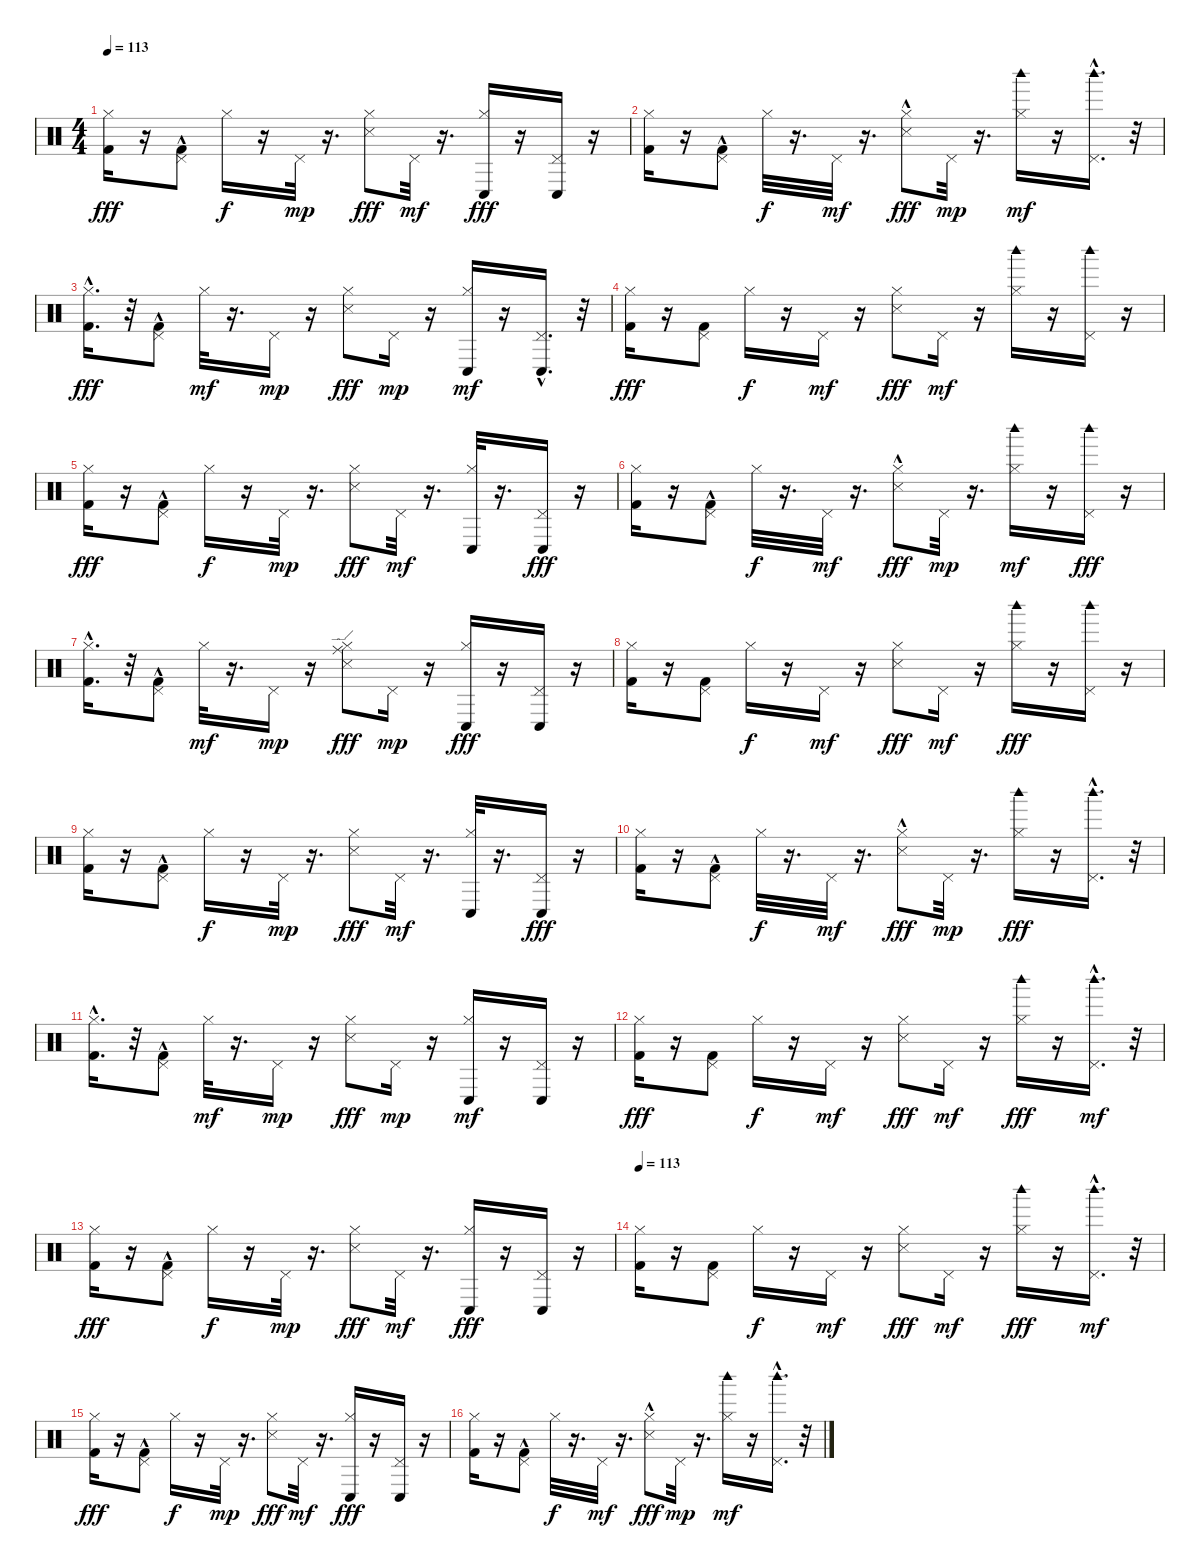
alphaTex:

\track "" {instrument percussion}
\staff {score}
\articulation defaults
\ts (4 4)
\tempo 113
\clef neutral
\ks c
("Hi-Hat (closed)" "Kick (hit) 2").16{dy fff} r.16 ("Pedal Hi-Hat (hit)" "Kick (hit) 2"{hac}).8 "Hi-Hat (closed)".16{dy f} r.16 "Pedal Hi-Hat (hit)".32{dy mp} r.16{d} ("Hi-Hat (closed)" "Snare (side stick) 3").8{dy fff} "Pedal Hi-Hat (hit)".32{dy mf} r.16{d} ("Hi-Hat (closed)" "Conga low (hit)").16{dy fff} r.16 ("Pedal Hi-Hat (hit)" "Conga low (hit)").16 r.16 |
("Hi-Hat (closed)" "Kick (hit) 2").16 r.16 ("Pedal Hi-Hat (hit)" "Kick (hit) 2"{hac}).8 "Hi-Hat (closed)".32{dy f} r.16{d} "Pedal Hi-Hat (hit)".32{dy mf} r.16{d} ("Hi-Hat (closed)" "Snare (side stick) 3"{hac}).8{dy fff} "Pedal Hi-Hat (hit)".32{dy mp} r.16{d} ("Woodblock high (hit)" "Hi-Hat (closed)").16{dy mf} r.16 ("Woodblock high (hit)"{hac} "Pedal Hi-Hat (hit)").16{d} r.32 |
("Hi-Hat (closed)" "Kick (hit) 2"{hac}).16{d dy fff} r.32 ("Pedal Hi-Hat (hit)" "Kick (hit) 2"{hac}).8 "Hi-Hat (closed)".32{dy mf} r.16{d} "Pedal Hi-Hat (hit)".16{dy mp} r.16 ("Hi-Hat (closed)" "Snare (side stick) 3").8{dy fff} "Pedal Hi-Hat (hit)".16{dy mp} r.16 ("Conga low (hit)" "Hi-Hat (closed)").16{dy mf} r.16 ("Conga low (hit)"{hac} "Pedal Hi-Hat (hit)").16{d} r.32 |
("Hi-Hat (closed)" "Kick (hit) 2").16{dy fff} r.16 ("Pedal Hi-Hat (hit)" "Kick (hit) 2").8 "Hi-Hat (closed)".16{dy f} r.16 "Pedal Hi-Hat (hit)".16{dy mf} r.16 ("Hi-Hat (closed)" "Snare (side stick) 3").8{dy fff} "Pedal Hi-Hat (hit)".16{dy mf} r.16 ("Woodblock high (hit)" "Hi-Hat (closed)").16 r.16 ("Woodblock high (hit)" "Pedal Hi-Hat (hit)").16 r.16 |
("Hi-Hat (closed)" "Kick (hit) 2").16{dy fff} r.16 ("Pedal Hi-Hat (hit)" "Kick (hit) 2"{hac}).8 "Hi-Hat (closed)".16{dy f} r.16 "Pedal Hi-Hat (hit)".32{dy mp} r.16{d} ("Hi-Hat (closed)" "Snare (side stick) 3").8{dy fff} "Pedal Hi-Hat (hit)".32{dy mf} r.16{d} ("Conga low (hit)" "Hi-Hat (closed)").32 r.16{d} ("Pedal Hi-Hat (hit)" "Conga low (hit)").16{dy fff} r.16 |
("Hi-Hat (closed)" "Kick (hit) 2").16 r.16 ("Pedal Hi-Hat (hit)" "Kick (hit) 2"{hac}).8 "Hi-Hat (closed)".32{dy f} r.16{d} "Pedal Hi-Hat (hit)".32{dy mf} r.16{d} ("Hi-Hat (closed)" "Snare (side stick) 3"{hac}).8{dy fff} "Pedal Hi-Hat (hit)".32{dy mp} r.16{d} ("Woodblock high (hit)" "Hi-Hat (closed)").16{dy mf} r.16 ("Pedal Hi-Hat (hit)" "Woodblock high (hit)").16{dy fff} r.16 |
("Hi-Hat (closed)" "Kick (hit) 2"{hac}).16{d} r.32 ("Pedal Hi-Hat (hit)" "Kick (hit) 2"{hac}).8 "Hi-Hat (closed)".32{dy mf} r.16{d} "Pedal Hi-Hat (hit)".16{dy mp} r.16 ("Ride (edge)" "Hi-Hat (closed)" "Snare (side stick) 3").8{dy fff} "Pedal Hi-Hat (hit)".16{dy mp} r.16 ("Hi-Hat (closed)" "Conga low (hit)").16{dy fff} r.16 ("Pedal Hi-Hat (hit)" "Conga low (hit)").16 r.16 |
("Hi-Hat (closed)" "Kick (hit) 2").16 r.16 ("Pedal Hi-Hat (hit)" "Kick (hit) 2").8 "Hi-Hat (closed)".16{dy f} r.16 "Pedal Hi-Hat (hit)".16{dy mf} r.16 ("Hi-Hat (closed)" "Snare (side stick) 3").8{dy fff} "Pedal Hi-Hat (hit)".16{dy mf} r.16 ("Hi-Hat (closed)" "Woodblock high (hit)").16{dy fff} r.16 ("Pedal Hi-Hat (hit)" "Woodblock high (hit)").16 r.16 |
("Hi-Hat (closed)" "Kick (hit) 2").16 r.16 ("Pedal Hi-Hat (hit)" "Kick (hit) 2"{hac}).8 "Hi-Hat (closed)".16{dy f} r.16 "Pedal Hi-Hat (hit)".32{dy mp} r.16{d} ("Hi-Hat (closed)" "Snare (side stick) 3").8{dy fff} "Pedal Hi-Hat (hit)".32{dy mf} r.16{d} ("Conga low (hit)" "Hi-Hat (closed)").32 r.16{d} ("Pedal Hi-Hat (hit)" "Conga low (hit)").16{dy fff} r.16 |
("Hi-Hat (closed)" "Kick (hit) 2").16 r.16 ("Pedal Hi-Hat (hit)" "Kick (hit) 2"{hac}).8 "Hi-Hat (closed)".32{dy f} r.16{d} "Pedal Hi-Hat (hit)".32{dy mf} r.16{d} ("Hi-Hat (closed)" "Snare (side stick) 3"{hac}).8{dy fff} "Pedal Hi-Hat (hit)".32{dy mp} r.16{d} ("Hi-Hat (closed)" "Woodblock high (hit)").16{dy fff} r.16 ("Pedal Hi-Hat (hit)" "Woodblock high (hit)"{hac}).16{d} r.32 |
("Hi-Hat (closed)" "Kick (hit) 2"{hac}).16{d} r.32 ("Pedal Hi-Hat (hit)" "Kick (hit) 2"{hac}).8 "Hi-Hat (closed)".32{dy mf} r.16{d} "Pedal Hi-Hat (hit)".16{dy mp} r.16 ("Hi-Hat (closed)" "Snare (side stick) 3").8{dy fff} "Pedal Hi-Hat (hit)".16{dy mp} r.16 ("Conga low (hit)" "Hi-Hat (closed)").16{dy mf} r.16 ("Conga low (hit)" "Pedal Hi-Hat (hit)").16 r.16 |
("Hi-Hat (closed)" "Kick (hit) 2").16{dy fff} r.16 ("Pedal Hi-Hat (hit)" "Kick (hit) 2").8 "Hi-Hat (closed)".16{dy f} r.16 "Pedal Hi-Hat (hit)".16{dy mf} r.16 ("Hi-Hat (closed)" "Snare (side stick) 3").8{dy fff} "Pedal Hi-Hat (hit)".16{dy mf} r.16 ("Hi-Hat (closed)" "Woodblock high (hit)").16{dy fff} r.16 ("Woodblock high (hit)"{hac} "Pedal Hi-Hat (hit)").16{d dy mf} r.32 |
("Hi-Hat (closed)" "Kick (hit) 2").16{dy fff} r.16 ("Pedal Hi-Hat (hit)" "Kick (hit) 2"{hac}).8 "Hi-Hat (closed)".16{dy f} r.16 "Pedal Hi-Hat (hit)".32{dy mp} r.16{d} ("Hi-Hat (closed)" "Snare (side stick) 3").8{dy fff} "Pedal Hi-Hat (hit)".32{dy mf} r.16{d} ("Hi-Hat (closed)" "Conga low (hit)").16{dy fff} r.16 ("Pedal Hi-Hat (hit)" "Conga low (hit)").16 r.16 |
\tempo 113
("Hi-Hat (closed)" "Kick (hit) 2").16 r.16 ("Pedal Hi-Hat (hit)" "Kick (hit) 2").8 "Hi-Hat (closed)".16{dy f} r.16 "Pedal Hi-Hat (hit)".16{dy mf} r.16 ("Hi-Hat (closed)" "Snare (side stick) 3").8{dy fff} "Pedal Hi-Hat (hit)".16{dy mf} r.16 ("Hi-Hat (closed)" "Woodblock high (hit)").16{dy fff} r.16 ("Woodblock high (hit)"{hac} "Pedal Hi-Hat (hit)").16{d dy mf} r.32 |
("Hi-Hat (closed)" "Kick (hit) 2").16{dy fff} r.16 ("Pedal Hi-Hat (hit)" "Kick (hit) 2"{hac}).8 "Hi-Hat (closed)".16{dy f} r.16 "Pedal Hi-Hat (hit)".32{dy mp} r.16{d} ("Hi-Hat (closed)" "Snare (side stick) 3").8{dy fff} "Pedal Hi-Hat (hit)".32{dy mf} r.16{d} ("Hi-Hat (closed)" "Conga low (hit)").16{dy fff} r.16 ("Pedal Hi-Hat (hit)" "Conga low (hit)").16 r.16 |
("Hi-Hat (closed)" "Kick (hit) 2").16 r.16 ("Pedal Hi-Hat (hit)" "Kick (hit) 2"{hac}).8 "Hi-Hat (closed)".32{dy f} r.16{d} "Pedal Hi-Hat (hit)".32{dy mf} r.16{d} ("Hi-Hat (closed)" "Snare (side stick) 3"{hac}).8{dy fff} "Pedal Hi-Hat (hit)".32{dy mp} r.16{d} ("Woodblock high (hit)" "Hi-Hat (closed)").16{dy mf} r.16 ("Woodblock high (hit)"{hac} "Pedal Hi-Hat (hit)").16{d} r.32
